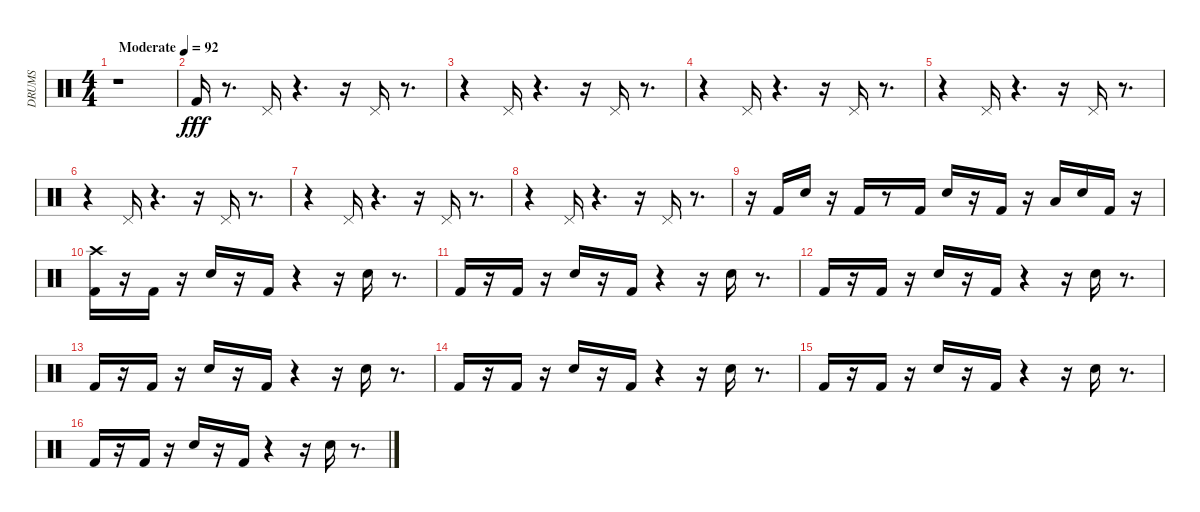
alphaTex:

\track ("DRUMS" "DRUMS") {instrument percussion}
\staff {score}
\articulation defaults
\ts (4 4)
\tempo (92 "Moderate")
\clef neutral
\ks c
r.1{dy fff} |
"Kick (hit) 2".16 r.8{d} "Pedal Hi-Hat (hit)".16 r.4{d} r.16 "Pedal Hi-Hat (hit)".16 r.8{d} |
r.4 "Pedal Hi-Hat (hit)".16 r.4{d} r.16 "Pedal Hi-Hat (hit)".16 r.8{d} |
r.4 "Pedal Hi-Hat (hit)".16 r.4{d} r.16 "Pedal Hi-Hat (hit)".16 r.8{d} |
r.4 "Pedal Hi-Hat (hit)".16 r.4{d} r.16 "Pedal Hi-Hat (hit)".16 r.8{d} |
r.4 "Pedal Hi-Hat (hit)".16 r.4{d} r.16 "Pedal Hi-Hat (hit)".16 r.8{d} |
r.4 "Pedal Hi-Hat (hit)".16 r.4{d} r.16 "Pedal Hi-Hat (hit)".16 r.8{d} |
r.4 "Pedal Hi-Hat (hit)".16 r.4{d} r.16 "Pedal Hi-Hat (hit)".16 r.8{d} |
r.16 "Kick (hit) 2".16 "Electric Snare (hit)".16 r.16 "Kick (hit) 2".16 r.8 "Kick (hit) 2".16 "Electric Snare (hit)".16 r.16 "Kick (hit) 2".16 r.16 "Low Tom (hit)".16 "Electric Snare (hit)".16 "Kick (hit) 2".16 r.16 |
("Kick (hit) 2" "Crash high (hit)").16 r.16 "Kick (hit) 2".16 r.16 "Electric Snare (hit)".16 r.16 "Kick (hit) 2".16 r.4 r.16 "Electric Snare (hit)".16 r.8{d} |
"Kick (hit) 2".16 r.16 "Kick (hit) 2".16 r.16 "Electric Snare (hit)".16 r.16 "Kick (hit) 2".16 r.4 r.16 "Electric Snare (hit)".16 r.8{d} |
"Kick (hit) 2".16 r.16 "Kick (hit) 2".16 r.16 "Electric Snare (hit)".16 r.16 "Kick (hit) 2".16 r.4 r.16 "Electric Snare (hit)".16 r.8{d} |
"Kick (hit) 2".16 r.16 "Kick (hit) 2".16 r.16 "Electric Snare (hit)".16 r.16 "Kick (hit) 2".16 r.4 r.16 "Electric Snare (hit)".16 r.8{d} |
"Kick (hit) 2".16 r.16 "Kick (hit) 2".16 r.16 "Electric Snare (hit)".16 r.16 "Kick (hit) 2".16 r.4 r.16 "Electric Snare (hit)".16 r.8{d} |
"Kick (hit) 2".16 r.16 "Kick (hit) 2".16 r.16 "Electric Snare (hit)".16 r.16 "Kick (hit) 2".16 r.4 r.16 "Electric Snare (hit)".16 r.8{d} |
"Kick (hit) 2".16 r.16 "Kick (hit) 2".16 r.16 "Electric Snare (hit)".16 r.16 "Kick (hit) 2".16 r.4 r.16 "Electric Snare (hit)".16 r.8{d}
